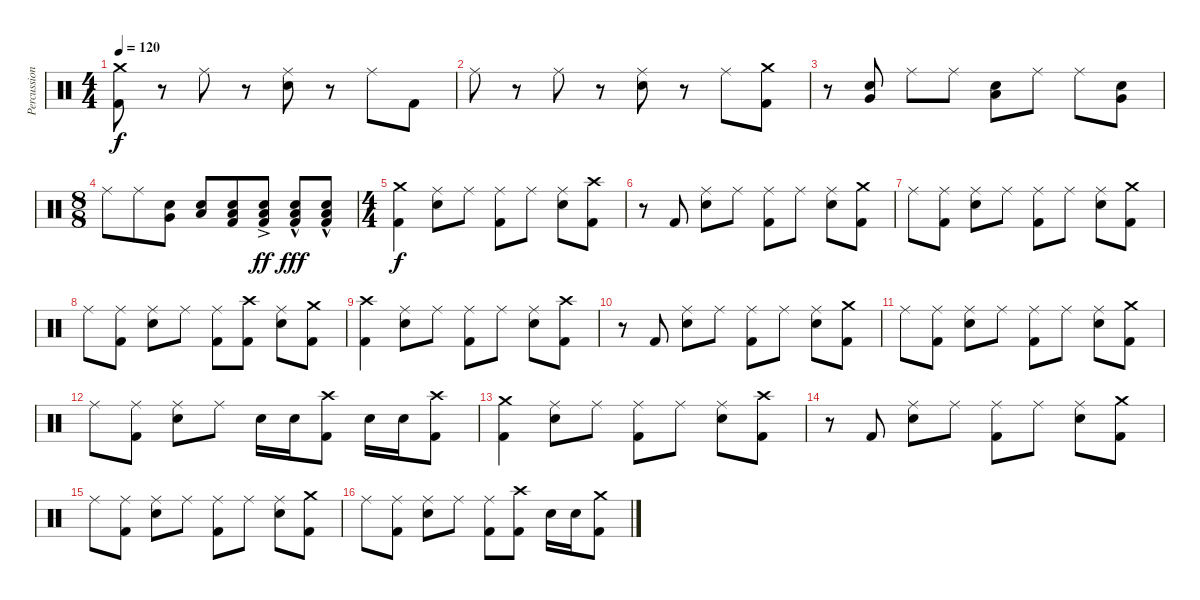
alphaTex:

\track ("Percussion" "Percussion") {instrument percussion}
\staff {score}
\articulation defaults
\ts (4 4)
\tempo 120
\clef neutral
\ks c
("Kick (hit) 2" "Crash medium (hit)").8{dy f} r.8 "Ride (middle)".8 r.8 ("Electric Snare (hit)" "Ride (middle)").8 r.8 "Ride (middle)".8 "Kick (hit) 2".8 |
"Ride (middle)".8 r.8 "Ride (middle)".8 r.8 ("Electric Snare (hit)" "Ride (middle)").8 r.8 "Ride (middle)".8 ("Kick (hit) 2" "Crash medium (hit)").8 |
r.8 ("Very Low Tom (hit)" "Electric Snare (hit)").8 "Ride (middle)".8 "Ride (middle)".8 ("Low Floor Tom (hit)" "Electric Snare (hit)").8 "Ride (middle)".8 "Ride (middle)".8 ("Electric Snare (hit)" "Very Low Tom (hit)").8 |
\ts (8 8)
"Ride (middle)".8 "Ride (middle)".8 ("Very Low Tom (hit)" "Electric Snare (hit)").8 ("Low Floor Tom (hit)" "Electric Snare (hit)").8 ("Kick (hit) 2" "Low Floor Tom (hit)" "Electric Snare (hit)").8 ("Kick (hit) 2" "Low Floor Tom (hit)" "Electric Snare (hit)"{ac}).8{dy ff} ("Kick (hit) 2" "Low Floor Tom (hit)" "Electric Snare (hit)"{hac}).8{dy fff} ("Kick (hit) 2" "Low Floor Tom (hit)" "Electric Snare (hit)"{hac}).8 |
\ts (4 4)
("Kick (hit) 2" "Crash medium (hit)").4{dy f} ("Electric Snare (hit)" "Ride (middle)").8 "Ride (middle)".8 ("Kick (hit) 2" "Ride (middle)").8 "Ride (middle)".8 ("Electric Snare (hit)" "Ride (middle)").8 ("Kick (hit) 2" "Crash high (hit)").8 |
r.8 "Kick (hit) 2".8 ("Electric Snare (hit)" "Ride (middle)").8 "Ride (middle)".8 ("Kick (hit) 2" "Ride (middle)").8 "Ride (middle)".8 ("Electric Snare (hit)" "Ride (middle)").8 ("Kick (hit) 2" "Crash medium (hit)").8 |
"Ride (middle)".8 ("Kick (hit) 2" "Ride (middle)").8 ("Electric Snare (hit)" "Ride (middle)").8 "Ride (middle)".8 ("Kick (hit) 2" "Ride (middle)").8 "Ride (middle)".8 ("Electric Snare (hit)" "Ride (middle)").8 ("Kick (hit) 2" "Crash medium (hit)").8 |
"Ride (middle)".8 ("Kick (hit) 2" "Ride (middle)").8 ("Electric Snare (hit)" "Ride (middle)").8 "Ride (middle)".8 ("Kick (hit) 2" "Ride (middle)").8 ("Kick (hit) 2" "Crash high (hit)").8 ("Electric Snare (hit)" "Ride (middle)").8 ("Kick (hit) 2" "Crash medium (hit)").8 |
("Kick (hit) 2" "Crash high (hit)").4 ("Electric Snare (hit)" "Ride (middle)").8 "Ride (middle)".8 ("Kick (hit) 2" "Ride (middle)").8 "Ride (middle)".8 ("Electric Snare (hit)" "Ride (middle)").8 ("Kick (hit) 2" "Crash high (hit)").8 |
r.8 "Kick (hit) 2".8 ("Electric Snare (hit)" "Ride (middle)").8 "Ride (middle)".8 ("Kick (hit) 2" "Ride (middle)").8 "Ride (middle)".8 ("Electric Snare (hit)" "Ride (middle)").8 ("Kick (hit) 2" "Crash medium (hit)").8 |
"Ride (middle)".8 ("Kick (hit) 2" "Ride (middle)").8 ("Electric Snare (hit)" "Ride (middle)").8 "Ride (middle)".8 ("Kick (hit) 2" "Ride (middle)").8 "Ride (middle)".8 ("Electric Snare (hit)" "Ride (middle)").8 ("Kick (hit) 2" "Crash medium (hit)").8 |
"Ride (middle)".8 ("Kick (hit) 2" "Ride (middle)").8 ("Electric Snare (hit)" "Ride (middle)").8 "Ride (middle)".8 "Electric Snare (hit)".16 "Electric Snare (hit)".16 ("Kick (hit) 2" "Crash high (hit)").8 "Electric Snare (hit)".16 "Electric Snare (hit)".16 ("Kick (hit) 2" "Crash high (hit)").8 |
("Kick (hit) 2" "Crash medium (hit)").4 ("Electric Snare (hit)" "Ride (middle)").8 "Ride (middle)".8 ("Kick (hit) 2" "Ride (middle)").8 "Ride (middle)".8 ("Electric Snare (hit)" "Ride (middle)").8 ("Kick (hit) 2" "Crash high (hit)").8 |
r.8 "Kick (hit) 2".8 ("Electric Snare (hit)" "Ride (middle)").8 "Ride (middle)".8 ("Kick (hit) 2" "Ride (middle)").8 "Ride (middle)".8 ("Electric Snare (hit)" "Ride (middle)").8 ("Kick (hit) 2" "Crash medium (hit)").8 |
"Ride (middle)".8 ("Kick (hit) 2" "Ride (middle)").8 ("Electric Snare (hit)" "Ride (middle)").8 "Ride (middle)".8 ("Kick (hit) 2" "Ride (middle)").8 "Ride (middle)".8 ("Electric Snare (hit)" "Ride (middle)").8 ("Kick (hit) 2" "Crash medium (hit)").8 |
"Ride (middle)".8 ("Kick (hit) 2" "Ride (middle)").8 ("Electric Snare (hit)" "Ride (middle)").8 "Ride (middle)".8 ("Kick (hit) 2" "Ride (middle)").8 ("Kick (hit) 2" "Crash high (hit)").8 "Electric Snare (hit)".16 "Electric Snare (hit)".16 ("Kick (hit) 2" "Crash medium (hit)").8
